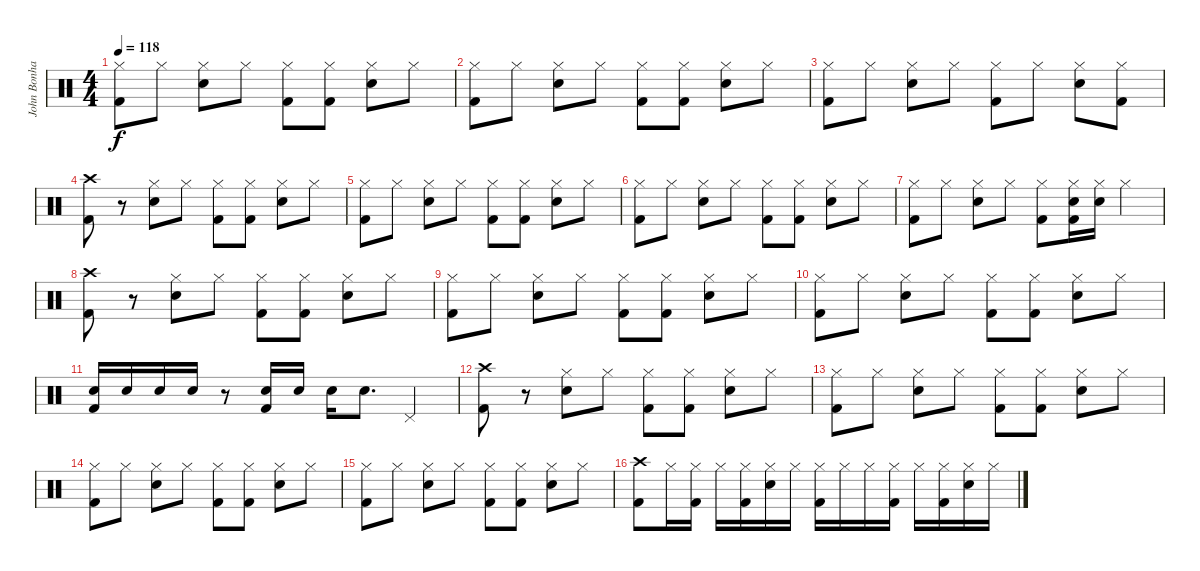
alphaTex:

\track ("John Bonham (Bateria)" "John Bonha") {instrument percussion}
\staff {score}
\articulation defaults
\ts (4 4)
\tempo 118
\clef neutral
\ks c
("Hi-Hat (closed)" "Kick (hit) 2").8{dy f} "Hi-Hat (closed)".8 ("Snare (hit) 2" "Hi-Hat (closed)").8 "Hi-Hat (closed)".8 ("Kick (hit) 2" "Hi-Hat (closed)").8 ("Kick (hit) 2" "Hi-Hat (closed)").8 ("Snare (hit) 2" "Hi-Hat (closed)").8 "Hi-Hat (closed)".8 |
("Hi-Hat (closed)" "Kick (hit) 2").8 "Hi-Hat (closed)".8 ("Snare (hit) 2" "Hi-Hat (closed)").8 "Hi-Hat (closed)".8 ("Kick (hit) 2" "Hi-Hat (closed)").8 ("Kick (hit) 2" "Hi-Hat (closed)").8 ("Snare (hit) 2" "Hi-Hat (closed)").8 "Hi-Hat (closed)".8 |
("Hi-Hat (closed)" "Kick (hit) 2").8 "Hi-Hat (closed)".8 ("Snare (hit) 2" "Hi-Hat (closed)").8 "Hi-Hat (closed)".8 ("Kick (hit) 2" "Hi-Hat (closed)").8 "Hi-Hat (closed)".8 ("Snare (hit) 2" "Hi-Hat (closed)").8 ("Kick (hit) 2" "Hi-Hat (closed)").8 |
("Crash high (hit)" "Kick (hit) 2").8 r.8 ("Snare (hit) 2" "Hi-Hat (closed)").8 "Hi-Hat (closed)".8 ("Hi-Hat (closed)" "Kick (hit) 2").8 ("Hi-Hat (closed)" "Kick (hit) 2").8 ("Hi-Hat (closed)" "Snare (hit) 2").8 "Hi-Hat (closed)".8 |
("Hi-Hat (closed)" "Kick (hit) 2").8 "Hi-Hat (closed)".8 ("Snare (hit) 2" "Hi-Hat (closed)").8 "Hi-Hat (closed)".8 ("Kick (hit) 2" "Hi-Hat (closed)").8 ("Kick (hit) 2" "Hi-Hat (closed)").8 ("Snare (hit) 2" "Hi-Hat (closed)").8 "Hi-Hat (closed)".8 |
("Hi-Hat (closed)" "Kick (hit) 2").8 "Hi-Hat (closed)".8 ("Snare (hit) 2" "Hi-Hat (closed)").8 "Hi-Hat (closed)".8 ("Kick (hit) 2" "Hi-Hat (closed)").8 ("Kick (hit) 2" "Hi-Hat (closed)").8 ("Snare (hit) 2" "Hi-Hat (closed)").8 "Hi-Hat (closed)".8 |
("Hi-Hat (closed)" "Kick (hit) 2").8 "Hi-Hat (closed)".8 ("Snare (hit) 2" "Hi-Hat (closed)").8 "Hi-Hat (closed)".8 ("Kick (hit) 2" "Hi-Hat (closed)").8 ("Kick (hit) 2" "Snare (hit) 2" "Hi-Hat (closed)").16 ("Snare (hit) 2" "Hi-Hat (closed)").16 "Hi-Hat (closed)".4 |
("Crash high (hit)" "Kick (hit) 2").8 r.8 ("Snare (hit) 2" "Hi-Hat (closed)").8 "Hi-Hat (closed)".8 ("Hi-Hat (closed)" "Kick (hit) 2").8 ("Hi-Hat (closed)" "Kick (hit) 2").8 ("Hi-Hat (closed)" "Snare (hit) 2").8 "Hi-Hat (closed)".8 |
("Hi-Hat (closed)" "Kick (hit) 2").8 "Hi-Hat (closed)".8 ("Snare (hit) 2" "Hi-Hat (closed)").8 "Hi-Hat (closed)".8 ("Kick (hit) 2" "Hi-Hat (closed)").8 ("Kick (hit) 2" "Hi-Hat (closed)").8 ("Snare (hit) 2" "Hi-Hat (closed)").8 "Hi-Hat (closed)".8 |
("Hi-Hat (closed)" "Kick (hit) 2").8 "Hi-Hat (closed)".8 ("Snare (hit) 2" "Hi-Hat (closed)").8 "Hi-Hat (closed)".8 ("Kick (hit) 2" "Hi-Hat (closed)").8 ("Kick (hit) 2" "Hi-Hat (closed)").8 ("Snare (hit) 2" "Hi-Hat (closed)").8 "Hi-Hat (closed)".8 |
("Kick (hit) 2" "Snare (hit) 2").16 "Snare (hit) 2".16 "Snare (hit) 2".16 "Snare (hit) 2".16 r.8 ("Snare (hit) 2" "Kick (hit) 2").16 "Snare (hit) 2".16 "Snare (hit) 2".16 "Snare (hit) 2".8{d} "Pedal Hi-Hat (hit)".4 |
("Crash high (hit)" "Kick (hit) 2").8 r.8 ("Snare (hit) 2" "Hi-Hat (closed)").8 "Hi-Hat (closed)".8 ("Hi-Hat (closed)" "Kick (hit) 2").8 ("Hi-Hat (closed)" "Kick (hit) 2").8 ("Hi-Hat (closed)" "Snare (hit) 2").8 "Hi-Hat (closed)".8 |
("Hi-Hat (closed)" "Kick (hit) 2").8 "Hi-Hat (closed)".8 ("Snare (hit) 2" "Hi-Hat (closed)").8 "Hi-Hat (closed)".8 ("Kick (hit) 2" "Hi-Hat (closed)").8 ("Kick (hit) 2" "Hi-Hat (closed)").8 ("Snare (hit) 2" "Hi-Hat (closed)").8 "Hi-Hat (closed)".8 |
("Hi-Hat (closed)" "Kick (hit) 2").8 "Hi-Hat (closed)".8 ("Snare (hit) 2" "Hi-Hat (closed)").8 "Hi-Hat (closed)".8 ("Kick (hit) 2" "Hi-Hat (closed)").8 ("Kick (hit) 2" "Hi-Hat (closed)").8 ("Snare (hit) 2" "Hi-Hat (closed)").8 "Hi-Hat (closed)".8 |
("Hi-Hat (closed)" "Kick (hit) 2").8 "Hi-Hat (closed)".8 ("Snare (hit) 2" "Hi-Hat (closed)").8 "Hi-Hat (closed)".8 ("Kick (hit) 2" "Hi-Hat (closed)").8 ("Kick (hit) 2" "Hi-Hat (closed)").8 ("Snare (hit) 2" "Hi-Hat (closed)").8 "Hi-Hat (closed)".8 |
("Crash high (hit)" "Kick (hit) 2").8 "Hi-Hat (closed)".16 ("Kick (hit) 2" "Hi-Hat (closed)").16 "Hi-Hat (closed)".16 ("Kick (hit) 2" "Hi-Hat (closed)").16 ("Snare (hit) 2" "Hi-Hat (closed)").16 "Hi-Hat (closed)".16 ("Kick (hit) 2" "Hi-Hat (closed)").16 "Hi-Hat (closed)".16 "Hi-Hat (closed)".16 ("Kick (hit) 2" "Hi-Hat (closed)").16 "Hi-Hat (closed)".16 ("Kick (hit) 2" "Hi-Hat (closed)").16 ("Snare (hit) 2" "Hi-Hat (closed)").16 "Hi-Hat (closed)".16
